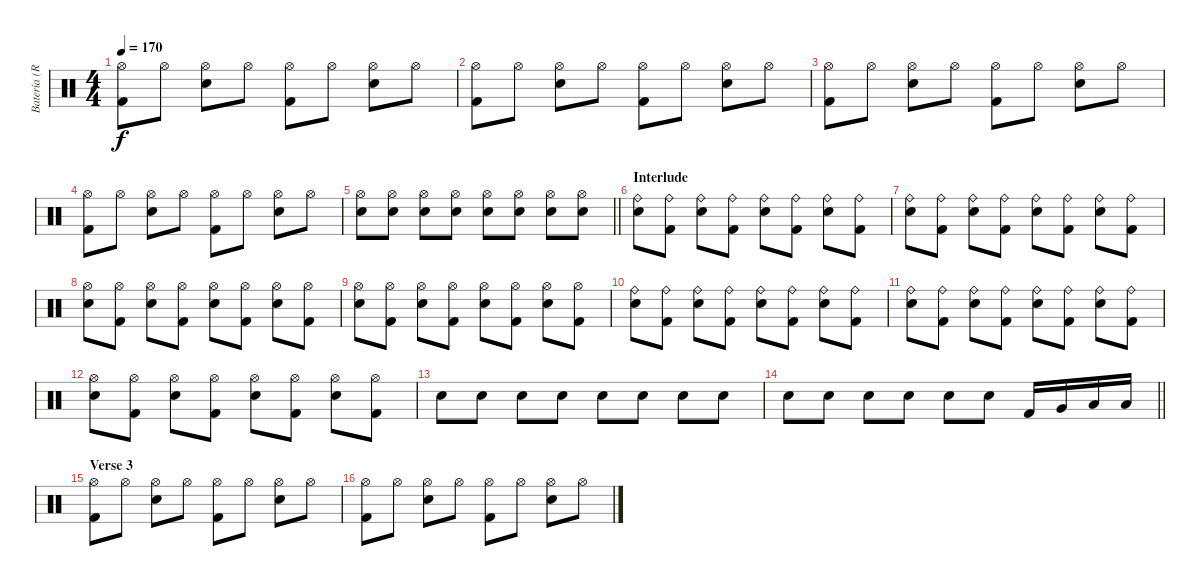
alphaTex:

\track ("Batería (Richie)" "Batería (R") {instrument percussion}
\staff {score}
\articulation defaults
\ts (4 4)
\tempo 170
\clef neutral
\ks c
("Hi-Hat (open)" "Kick (hit) 2").8{dy f} "Hi-Hat (open)".8 ("Hi-Hat (open)" "Snare (hit) 2").8 "Hi-Hat (open)".8 ("Hi-Hat (open)" "Kick (hit) 2").8 "Hi-Hat (open)".8 ("Hi-Hat (open)" "Snare (hit) 2").8 "Hi-Hat (open)".8 |
("Hi-Hat (open)" "Kick (hit) 2").8 "Hi-Hat (open)".8 ("Hi-Hat (open)" "Snare (hit) 2").8 "Hi-Hat (open)".8 ("Hi-Hat (open)" "Kick (hit) 2").8 "Hi-Hat (open)".8 ("Hi-Hat (open)" "Snare (hit) 2").8 "Hi-Hat (open)".8 |
("Hi-Hat (open)" "Kick (hit) 2").8 "Hi-Hat (open)".8 ("Hi-Hat (open)" "Snare (hit) 2").8 "Hi-Hat (open)".8 ("Hi-Hat (open)" "Kick (hit) 2").8 "Hi-Hat (open)".8 ("Hi-Hat (open)" "Snare (hit) 2").8 "Hi-Hat (open)".8 |
("Hi-Hat (open)" "Kick (hit) 2").8 "Hi-Hat (open)".8 ("Hi-Hat (open)" "Snare (hit) 2").8 "Hi-Hat (open)".8 ("Hi-Hat (open)" "Kick (hit) 2").8 "Hi-Hat (open)".8 ("Hi-Hat (open)" "Snare (hit) 2").8 "Hi-Hat (open)".8 |
\barLineRight lightlight
("Hi-Hat (open)" "Snare (hit) 2").8 ("Hi-Hat (open)" "Snare (hit) 2").8 ("Hi-Hat (open)" "Snare (hit) 2").8 ("Hi-Hat (open)" "Snare (hit) 2").8 ("Hi-Hat (open)" "Snare (hit) 2").8 ("Hi-Hat (open)" "Snare (hit) 2").8 ("Hi-Hat (open)" "Snare (hit) 2").8 ("Hi-Hat (open)" "Snare (hit) 2").8 |
\section ("" "Interlude")
("Ride (bell)" "Snare (hit) 2").8 ("Ride (bell)" "Kick (hit) 2").8 ("Ride (bell)" "Snare (hit) 2").8 ("Ride (bell)" "Kick (hit) 2").8 ("Ride (bell)" "Snare (hit) 2").8 ("Ride (bell)" "Kick (hit) 2").8 ("Ride (bell)" "Snare (hit) 2").8 ("Ride (bell)" "Kick (hit) 2").8 |
("Ride (bell)" "Snare (hit) 2").8 ("Ride (bell)" "Kick (hit) 2").8 ("Ride (bell)" "Snare (hit) 2").8 ("Ride (bell)" "Kick (hit) 2").8 ("Ride (bell)" "Snare (hit) 2").8 ("Ride (bell)" "Kick (hit) 2").8 ("Ride (bell)" "Snare (hit) 2").8 ("Ride (bell)" "Kick (hit) 2").8 |
("Hi-Hat (open)" "Snare (hit) 2").8 ("Hi-Hat (open)" "Kick (hit) 2").8 ("Hi-Hat (open)" "Snare (hit) 2").8 ("Hi-Hat (open)" "Kick (hit) 2").8 ("Hi-Hat (open)" "Snare (hit) 2").8 ("Hi-Hat (open)" "Kick (hit) 2").8 ("Hi-Hat (open)" "Snare (hit) 2").8 ("Hi-Hat (open)" "Kick (hit) 2").8 |
("Hi-Hat (open)" "Snare (hit) 2").8 ("Hi-Hat (open)" "Kick (hit) 2").8 ("Hi-Hat (open)" "Snare (hit) 2").8 ("Hi-Hat (open)" "Kick (hit) 2").8 ("Hi-Hat (open)" "Snare (hit) 2").8 ("Hi-Hat (open)" "Kick (hit) 2").8 ("Hi-Hat (open)" "Snare (hit) 2").8 ("Hi-Hat (open)" "Kick (hit) 2").8 |
("Ride (bell)" "Snare (hit) 2").8 ("Ride (bell)" "Kick (hit) 2").8 ("Ride (bell)" "Snare (hit) 2").8 ("Ride (bell)" "Kick (hit) 2").8 ("Ride (bell)" "Snare (hit) 2").8 ("Ride (bell)" "Kick (hit) 2").8 ("Ride (bell)" "Snare (hit) 2").8 ("Ride (bell)" "Kick (hit) 2").8 |
("Ride (bell)" "Snare (hit) 2").8 ("Ride (bell)" "Kick (hit) 2").8 ("Ride (bell)" "Snare (hit) 2").8 ("Ride (bell)" "Kick (hit) 2").8 ("Ride (bell)" "Snare (hit) 2").8 ("Ride (bell)" "Kick (hit) 2").8 ("Ride (bell)" "Snare (hit) 2").8 ("Ride (bell)" "Kick (hit) 2").8 |
("Hi-Hat (open)" "Snare (hit) 2").8 ("Hi-Hat (open)" "Kick (hit) 2").8 ("Hi-Hat (open)" "Snare (hit) 2").8 ("Hi-Hat (open)" "Kick (hit) 2").8 ("Hi-Hat (open)" "Snare (hit) 2").8 ("Hi-Hat (open)" "Kick (hit) 2").8 ("Hi-Hat (open)" "Snare (hit) 2").8 ("Hi-Hat (open)" "Kick (hit) 2").8 |
"Snare (hit) 2".8 "Snare (hit) 2".8 "Snare (hit) 2".8 "Snare (hit) 2".8 "Snare (hit) 2".8 "Snare (hit) 2".8 "Snare (hit) 2".8 "Snare (hit) 2".8 |
\barLineRight lightlight "Snare (hit) 2".8 "Snare (hit) 2".8 "Snare (hit) 2".8 "Snare (hit) 2".8 "Snare (hit) 2".8 "Snare (hit) 2".8 "Kick (hit) 2".16 "Very Low Tom (hit)".16 "Low Tom (hit)".16 "Low Floor Tom (hit)".16
|
\section ("" "Verse 3")
("Hi-Hat (open)" "Kick (hit) 2").8 "Hi-Hat (open)".8 ("Hi-Hat (open)" "Snare (hit) 2").8 "Hi-Hat (open)".8 ("Hi-Hat (open)" "Kick (hit) 2").8 "Hi-Hat (open)".8 ("Hi-Hat (open)" "Snare (hit) 2").8 "Hi-Hat (open)".8 |
("Hi-Hat (open)" "Kick (hit) 2").8 "Hi-Hat (open)".8 ("Hi-Hat (open)" "Snare (hit) 2").8 "Hi-Hat (open)".8 ("Hi-Hat (open)" "Kick (hit) 2").8 "Hi-Hat (open)".8 ("Hi-Hat (open)" "Snare (hit) 2").8 "Hi-Hat (open)".8
